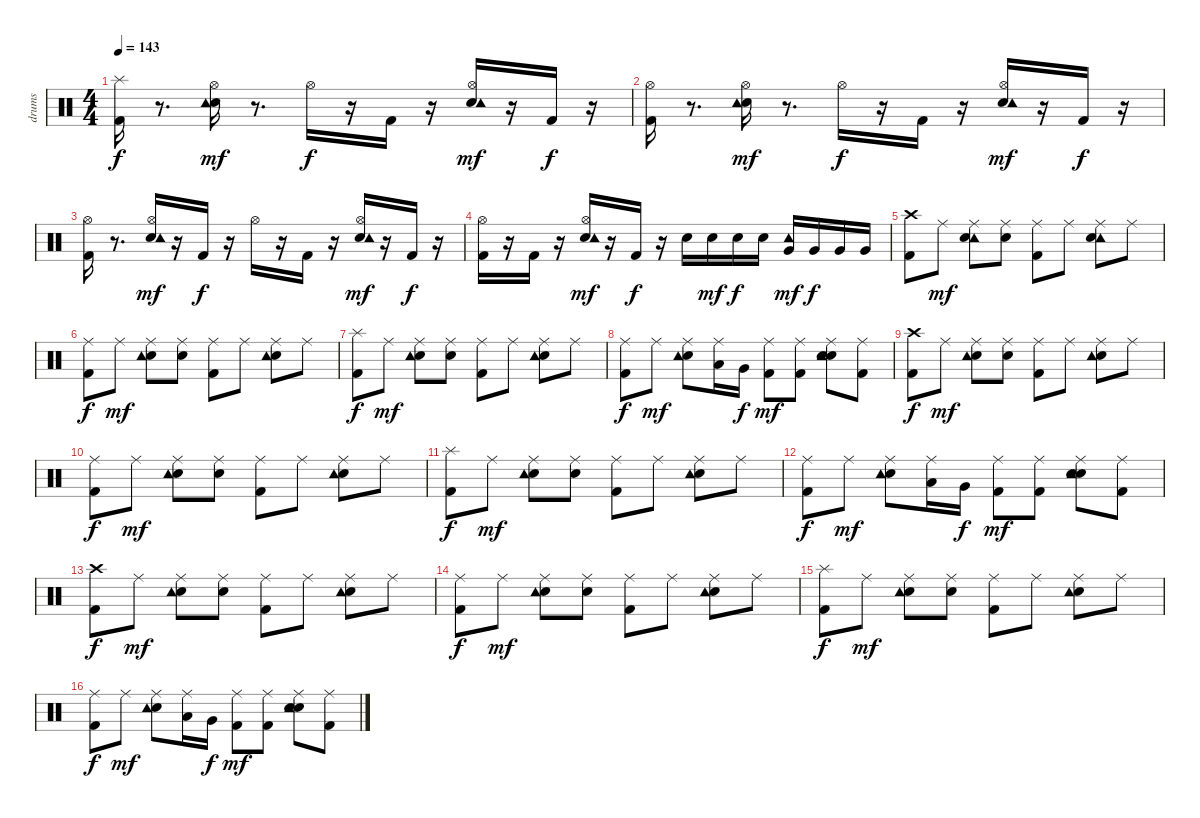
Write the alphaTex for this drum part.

\track ("drums" "drums") {instrument percussion}
\staff {score}
\articulation defaults
\ts (4 4)
\tempo 143
\clef neutral
\ks c
("Kick (hit) 2" "Splash (hit)").16{dy f} r.8{d} ("Snare (hit) 2" "Hi-Hat (open)" "Tambourine (hit)").16{dy mf} r.8{d} "Hi-Hat (open)".16{dy f} r.16 "Kick (hit) 2".16 r.16 ("Snare (hit) 2" "Hi-Hat (open)" "Tambourine (hit)").16{dy mf} r.16 "Kick (hit) 2".16{dy f} r.16 |
("Kick (hit) 2" "Hi-Hat (open)").16 r.8{d} ("Snare (hit) 2" "Hi-Hat (open)" "Tambourine (hit)").16{dy mf} r.8{d} "Hi-Hat (open)".16{dy f} r.16 "Kick (hit) 2".16 r.16 ("Snare (hit) 2" "Hi-Hat (open)" "Tambourine (hit)").16{dy mf} r.16 "Kick (hit) 2".16{dy f} r.16 |
("Hi-Hat (open)" "Kick (hit) 2").16 r.8{d} ("Hi-Hat (open)" "Snare (hit) 2" "Tambourine (hit)").16{dy mf} r.16 "Kick (hit) 2".16{dy f} r.16 "Hi-Hat (open)".16 r.16 "Kick (hit) 2".16 r.16 ("Hi-Hat (open)" "Snare (hit) 2" "Tambourine (hit)").16{dy mf} r.16 "Kick (hit) 2".16{dy f} r.16 |
("Hi-Hat (open)" "Kick (hit) 2").16 r.16 "Kick (hit) 2".16 r.16 ("Hi-Hat (open)" "Snare (hit) 2" "Tambourine (hit)").16{dy mf} r.16 "Kick (hit) 2".16{dy f} r.16 "Snare (hit) 2".16 "Snare (hit) 2".16{dy mf} "Snare (hit) 2".16{dy f} "Snare (hit) 2".16 ("Tambourine (hit)" "Very Low Tom (hit)").16{dy mf} "Very Low Tom (hit)".16{dy f} "Very Low Tom (hit)".16 "Very Low Tom (hit)".16 |
("Kick (hit) 2" "Crash high (hit)").8 "Ride (middle)".8{dy mf} ("Tambourine (hit)" "Ride (middle)" "Snare (hit) 2").8 ("Ride (middle)" "Snare (hit) 2").8 ("Kick (hit) 2" "Ride (middle)").8 "Ride (middle)".8 ("Tambourine (hit)" "Snare (hit) 2" "Ride (middle)").8 "Ride (middle)".8 |
("Ride (middle)" "Kick (hit) 2").8{dy f} "Ride (middle)".8{dy mf} ("Ride (middle)" "Snare (hit) 2" "Tambourine (hit)").8 ("Snare (hit) 2" "Ride (middle)").8 ("Kick (hit) 2" "Ride (middle)").8 "Ride (middle)".8 ("Snare (hit) 2" "Ride (middle)" "Tambourine (hit)").8 "Ride (middle)".8 |
("Splash (hit)" "Kick (hit) 2").8{dy f} "Ride (middle)".8{dy mf} ("Ride (middle)" "Snare (hit) 2" "Tambourine (hit)").8 ("Snare (hit) 2" "Ride (middle)").8 ("Kick (hit) 2" "Ride (middle)").8 "Ride (middle)".8 ("Snare (hit) 2" "Ride (middle)" "Tambourine (hit)").8 "Ride (middle)".8 |
("Ride (middle)" "Kick (hit) 2").8{dy f} "Ride (middle)".8{dy mf} ("Ride (middle)" "Snare (hit) 2" "Tambourine (hit)").8 ("Low Tom (hit)" "Ride (middle)").16 "Very Low Tom (hit)".16{dy f} ("Kick (hit) 2" "Ride (middle)").8{dy mf} ("Kick (hit) 2" "Ride (middle)").8 ("Snare (hit) 2" "Ride (middle)" "Tambourine (hit)" "Snare (hit) 2").8 ("Kick (hit) 2" "Ride (middle)").8 |
("Kick (hit) 2" "Crash high (hit)").8{dy f} "Ride (middle)".8{dy mf} ("Ride (middle)" "Snare (hit) 2" "Tambourine (hit)").8 ("Ride (middle)" "Snare (hit) 2").8 ("Kick (hit) 2" "Ride (middle)").8 "Ride (middle)".8 ("Snare (hit) 2" "Ride (middle)" "Tambourine (hit)").8 "Ride (middle)".8 |
("Ride (middle)" "Kick (hit) 2").8{dy f} "Ride (middle)".8{dy mf} ("Ride (middle)" "Snare (hit) 2" "Tambourine (hit)").8 ("Snare (hit) 2" "Ride (middle)").8 ("Kick (hit) 2" "Ride (middle)").8 "Ride (middle)".8 ("Snare (hit) 2" "Ride (middle)" "Tambourine (hit)").8 "Ride (middle)".8 |
("Splash (hit)" "Kick (hit) 2").8{dy f} "Ride (middle)".8{dy mf} ("Ride (middle)" "Snare (hit) 2" "Tambourine (hit)").8 ("Snare (hit) 2" "Ride (middle)").8 ("Kick (hit) 2" "Ride (middle)").8 "Ride (middle)".8 ("Snare (hit) 2" "Ride (middle)" "Tambourine (hit)").8 "Ride (middle)".8 |
("Ride (middle)" "Kick (hit) 2").8{dy f} "Ride (middle)".8{dy mf} ("Ride (middle)" "Snare (hit) 2" "Tambourine (hit)").8 ("Low Tom (hit)" "Ride (middle)").16 "Very Low Tom (hit)".16{dy f} ("Kick (hit) 2" "Ride (middle)").8{dy mf} ("Kick (hit) 2" "Ride (middle)").8 ("Snare (hit) 2" "Ride (middle)" "Tambourine (hit)" "Snare (hit) 2").8 ("Kick (hit) 2" "Ride (middle)").8 |
("Kick (hit) 2" "Crash high (hit)").8{dy f} "Ride (middle)".8{dy mf} ("Ride (middle)" "Snare (hit) 2" "Tambourine (hit)").8 ("Ride (middle)" "Snare (hit) 2").8 ("Kick (hit) 2" "Ride (middle)").8 "Ride (middle)".8 ("Snare (hit) 2" "Ride (middle)" "Tambourine (hit)").8 "Ride (middle)".8 |
("Ride (middle)" "Kick (hit) 2").8{dy f} "Ride (middle)".8{dy mf} ("Ride (middle)" "Snare (hit) 2" "Tambourine (hit)").8 ("Snare (hit) 2" "Ride (middle)").8 ("Kick (hit) 2" "Ride (middle)").8 "Ride (middle)".8 ("Snare (hit) 2" "Ride (middle)" "Tambourine (hit)").8 "Ride (middle)".8 |
("Splash (hit)" "Kick (hit) 2").8{dy f} "Ride (middle)".8{dy mf} ("Ride (middle)" "Snare (hit) 2" "Tambourine (hit)").8 ("Snare (hit) 2" "Ride (middle)").8 ("Kick (hit) 2" "Ride (middle)").8 "Ride (middle)".8 ("Snare (hit) 2" "Ride (middle)" "Tambourine (hit)").8 "Ride (middle)".8 |
("Ride (middle)" "Kick (hit) 2").8{dy f} "Ride (middle)".8{dy mf} ("Ride (middle)" "Snare (hit) 2" "Tambourine (hit)").8 ("Low Tom (hit)" "Ride (middle)").16 "Very Low Tom (hit)".16{dy f} ("Kick (hit) 2" "Ride (middle)").8{dy mf} ("Kick (hit) 2" "Ride (middle)").8 ("Snare (hit) 2" "Ride (middle)" "Tambourine (hit)" "Snare (hit) 2").8 ("Kick (hit) 2" "Ride (middle)").8
